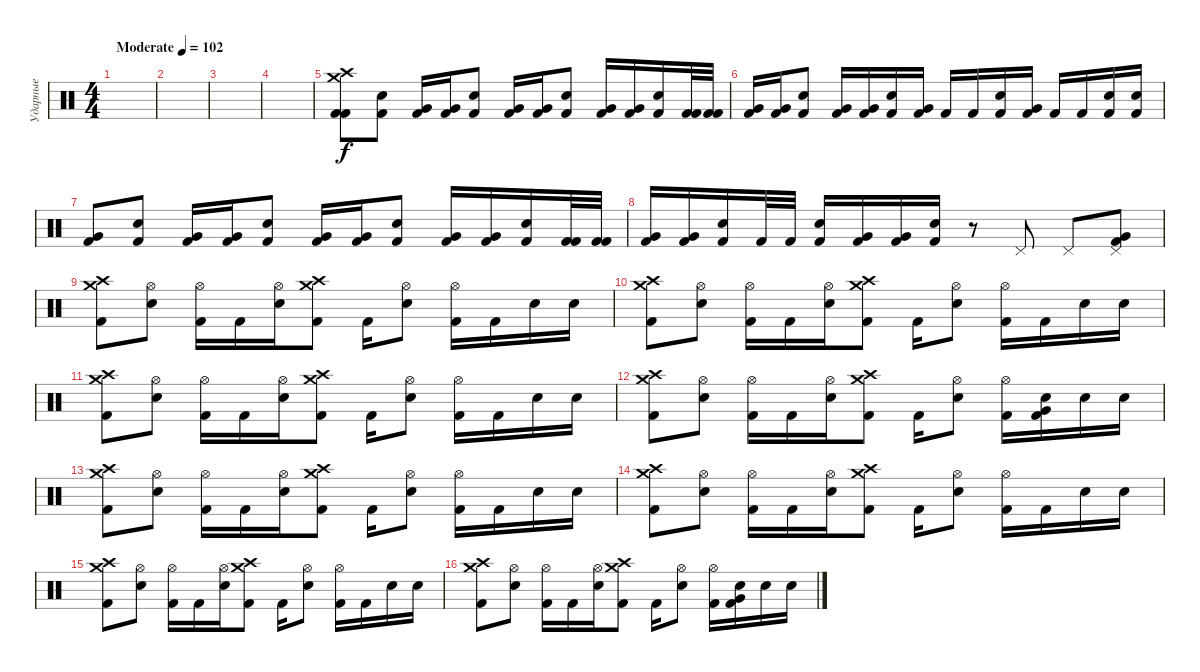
\track ("Ударные" "Ударные") {instrument percussion}
\staff {score}
\articulation defaults
\ts (4 4)
\tempo (102 "Moderate")
\clef neutral
\ks c
|
|
|
|
("Crash high (hit)" "Crash medium (hit)" "Kick (hit) 2" "Kick (hit) 2").8 ("Electric Snare (hit)" "Kick (hit) 2").8 ("Very Low Tom (hit)" "Kick (hit) 2").16 ("Very Low Tom (hit)" "Kick (hit) 2").16 ("Electric Snare (hit)" "Kick (hit) 2").8 ("Very Low Tom (hit)" "Kick (hit) 2").16 ("Very Low Tom (hit)" "Kick (hit) 2").16 ("Electric Snare (hit)" "Kick (hit) 2").8 ("Very Low Tom (hit)" "Kick (hit) 2").16 ("Very Low Tom (hit)" "Kick (hit) 2").16 ("Electric Snare (hit)" "Kick (hit) 2").16 ("Kick (hit) 2" "Kick (hit) 2").32 ("Kick (hit) 2" "Kick (hit) 2").32 |
("Very Low Tom (hit)" "Kick (hit) 2").16 ("Very Low Tom (hit)" "Kick (hit) 2").16 ("Electric Snare (hit)" "Kick (hit) 2").8 ("Very Low Tom (hit)" "Kick (hit) 2").16 ("Very Low Tom (hit)" "Kick (hit) 2").16 ("Electric Snare (hit)" "Kick (hit) 2").16 ("Very Low Tom (hit)" "Kick (hit) 2").16 "Kick (hit) 2".16 "Kick (hit) 2".16 ("Electric Snare (hit)" "Kick (hit) 2").16 ("Very Low Tom (hit)" "Kick (hit) 2").16 "Kick (hit) 2".16 "Kick (hit) 2".16 ("Electric Snare (hit)" "Kick (hit) 2").16 ("Electric Snare (hit)" "Kick (hit) 2").16 |
("Very Low Tom (hit)" "Kick (hit) 2").8 ("Electric Snare (hit)" "Kick (hit) 2").8 ("Very Low Tom (hit)" "Kick (hit) 2").16 ("Very Low Tom (hit)" "Kick (hit) 2").16 ("Electric Snare (hit)" "Kick (hit) 2").8 ("Very Low Tom (hit)" "Kick (hit) 2").16 ("Very Low Tom (hit)" "Kick (hit) 2").16 ("Electric Snare (hit)" "Kick (hit) 2").8 ("Very Low Tom (hit)" "Kick (hit) 2").16 ("Very Low Tom (hit)" "Kick (hit) 2").16 ("Electric Snare (hit)" "Kick (hit) 2").16 ("Kick (hit) 2" "Kick (hit) 2").32 ("Kick (hit) 2" "Kick (hit) 2").32 |
("Kick (hit) 2" "Very Low Tom (hit)").16 ("Kick (hit) 2" "Very Low Tom (hit)").16 ("Electric Snare (hit)" "Kick (hit) 2").16 "Kick (hit) 2".32 "Kick (hit) 2".32 ("Electric Snare (hit)" "Kick (hit) 2").16 ("Very Low Tom (hit)" "Kick (hit) 2").16 ("Very Low Tom (hit)" "Kick (hit) 2").16 ("Electric Snare (hit)" "Kick (hit) 2").16 r.8 "Pedal Hi-Hat (hit)".8 "Pedal Hi-Hat (hit)".8 ("Pedal Hi-Hat (hit)" "Very Low Tom (hit)" "Kick (hit) 2").8 |
("Crash high (hit)" "Crash medium (hit)" "Kick (hit) 2").8 ("Hi-Hat (open)" "Electric Snare (hit)").8 ("Hi-Hat (open)" "Kick (hit) 2").16 "Kick (hit) 2".16 ("Hi-Hat (open)" "Electric Snare (hit)").16 ("Crash high (hit)" "Crash medium (hit)" "Kick (hit) 2").8 "Kick (hit) 2".16 ("Hi-Hat (open)" "Electric Snare (hit)").8 ("Hi-Hat (open)" "Kick (hit) 2").16 "Kick (hit) 2".16 "Electric Snare (hit)".16 "Electric Snare (hit)".16 |
("Crash high (hit)" "Crash medium (hit)" "Kick (hit) 2").8 ("Hi-Hat (open)" "Electric Snare (hit)").8 ("Hi-Hat (open)" "Kick (hit) 2").16 "Kick (hit) 2".16 ("Hi-Hat (open)" "Electric Snare (hit)").16 ("Crash high (hit)" "Crash medium (hit)" "Kick (hit) 2").8 "Kick (hit) 2".16 ("Hi-Hat (open)" "Electric Snare (hit)").8 ("Hi-Hat (open)" "Kick (hit) 2").16 "Kick (hit) 2".16 "Electric Snare (hit)".16 "Electric Snare (hit)".16 |
("Crash high (hit)" "Crash medium (hit)" "Kick (hit) 2").8 ("Hi-Hat (open)" "Electric Snare (hit)").8 ("Hi-Hat (open)" "Kick (hit) 2").16 "Kick (hit) 2".16 ("Hi-Hat (open)" "Electric Snare (hit)").16 ("Crash high (hit)" "Crash medium (hit)" "Kick (hit) 2").8 "Kick (hit) 2".16 ("Hi-Hat (open)" "Electric Snare (hit)").8 ("Hi-Hat (open)" "Kick (hit) 2").16 "Kick (hit) 2".16 "Electric Snare (hit)".16 "Electric Snare (hit)".16 |
("Crash high (hit)" "Crash medium (hit)" "Kick (hit) 2").8 ("Hi-Hat (open)" "Electric Snare (hit)").8 ("Hi-Hat (open)" "Kick (hit) 2").16 "Kick (hit) 2".16 ("Hi-Hat (open)" "Electric Snare (hit)").16 ("Crash high (hit)" "Crash medium (hit)" "Kick (hit) 2").8 "Kick (hit) 2".16 ("Hi-Hat (open)" "Electric Snare (hit)").8 ("Hi-Hat (open)" "Kick (hit) 2").16 ("Very Low Tom (hit)" "Electric Snare (hit)" "Kick (hit) 2").16 "Electric Snare (hit)".16 "Electric Snare (hit)".16 |
("Crash high (hit)" "Crash medium (hit)" "Kick (hit) 2").8 ("Hi-Hat (open)" "Electric Snare (hit)").8 ("Hi-Hat (open)" "Kick (hit) 2").16 "Kick (hit) 2".16 ("Hi-Hat (open)" "Electric Snare (hit)").16 ("Crash high (hit)" "Crash medium (hit)" "Kick (hit) 2").8 "Kick (hit) 2".16 ("Hi-Hat (open)" "Electric Snare (hit)").8 ("Hi-Hat (open)" "Kick (hit) 2").16 "Kick (hit) 2".16 "Electric Snare (hit)".16 "Electric Snare (hit)".16 |
("Crash high (hit)" "Crash medium (hit)" "Kick (hit) 2").8 ("Hi-Hat (open)" "Electric Snare (hit)").8 ("Hi-Hat (open)" "Kick (hit) 2").16 "Kick (hit) 2".16 ("Hi-Hat (open)" "Electric Snare (hit)").16 ("Crash high (hit)" "Crash medium (hit)" "Kick (hit) 2").8 "Kick (hit) 2".16 ("Hi-Hat (open)" "Electric Snare (hit)").8 ("Hi-Hat (open)" "Kick (hit) 2").16 "Kick (hit) 2".16 "Electric Snare (hit)".16 "Electric Snare (hit)".16 |
("Crash high (hit)" "Crash medium (hit)" "Kick (hit) 2").8 ("Hi-Hat (open)" "Electric Snare (hit)").8 ("Hi-Hat (open)" "Kick (hit) 2").16 "Kick (hit) 2".16 ("Hi-Hat (open)" "Electric Snare (hit)").16 ("Crash high (hit)" "Crash medium (hit)" "Kick (hit) 2").8 "Kick (hit) 2".16 ("Hi-Hat (open)" "Electric Snare (hit)").8 ("Hi-Hat (open)" "Kick (hit) 2").16 "Kick (hit) 2".16 "Electric Snare (hit)".16 "Electric Snare (hit)".16 |
("Crash high (hit)" "Crash medium (hit)" "Kick (hit) 2").8 ("Hi-Hat (open)" "Electric Snare (hit)").8 ("Hi-Hat (open)" "Kick (hit) 2").16 "Kick (hit) 2".16 ("Hi-Hat (open)" "Electric Snare (hit)").16 ("Crash high (hit)" "Crash medium (hit)" "Kick (hit) 2").8 "Kick (hit) 2".16 ("Hi-Hat (open)" "Electric Snare (hit)").8 ("Hi-Hat (open)" "Kick (hit) 2").16 ("Very Low Tom (hit)" "Electric Snare (hit)" "Kick (hit) 2").16 "Electric Snare (hit)".16 "Electric Snare (hit)".16
